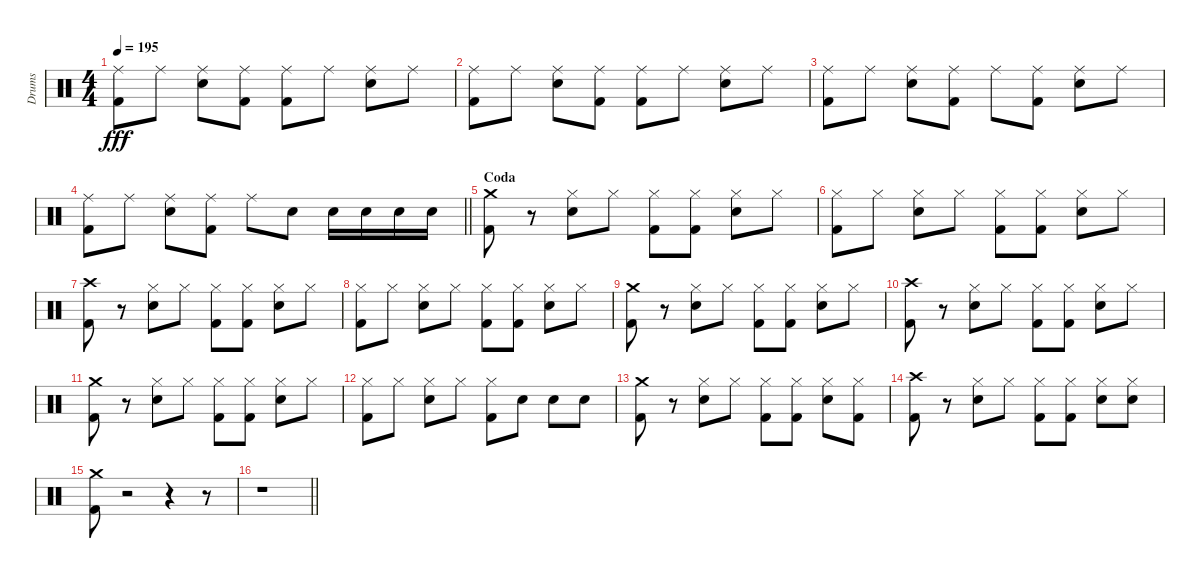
\track ("Drums" "Drums") {instrument percussion}
\staff {score}
\articulation defaults
\ts (4 4)
\tempo 195
\clef neutral
\ks c
("Ride (middle)" "Kick (hit) 2").8{dy fff} "Ride (middle)".8 ("Ride (middle)" "Snare (hit) 2").8 ("Ride (middle)" "Kick (hit) 2").8 ("Ride (middle)" "Kick (hit) 2").8 "Ride (middle)".8 ("Ride (middle)" "Snare (hit) 2").8 "Ride (middle)".8 |
("Ride (middle)" "Kick (hit) 2").8 "Ride (middle)".8 ("Ride (middle)" "Snare (hit) 2").8 ("Ride (middle)" "Kick (hit) 2").8 ("Ride (middle)" "Kick (hit) 2").8 "Ride (middle)".8 ("Ride (middle)" "Snare (hit) 2").8 "Ride (middle)".8 |
("Ride (middle)" "Kick (hit) 2").8 "Ride (middle)".8 ("Ride (middle)" "Snare (hit) 2").8 ("Ride (middle)" "Kick (hit) 2").8 "Ride (middle)".8 ("Ride (middle)" "Kick (hit) 2").8 ("Ride (middle)" "Snare (hit) 2").8 "Ride (middle)".8 |
\barLineRight lightlight
("Ride (middle)" "Kick (hit) 2").8 "Ride (middle)".8 ("Ride (middle)" "Snare (hit) 2").8 ("Ride (middle)" "Kick (hit) 2").8 "Ride (middle)".8 "Snare (hit) 2".8 "Snare (hit) 2".16 "Snare (hit) 2".16 "Snare (hit) 2".16 "Snare (hit) 2".16 |
\section ("" "Coda")
("Crash medium (hit)" "Kick (hit) 2").8 r.8 ("Hi-Hat (closed)" "Snare (hit) 2").8 "Hi-Hat (closed)".8 ("Hi-Hat (closed)" "Kick (hit) 2").8 ("Hi-Hat (closed)" "Kick (hit) 2").8 ("Hi-Hat (closed)" "Snare (hit) 2").8 "Hi-Hat (closed)".8 |
("Hi-Hat (closed)" "Kick (hit) 2").8 "Hi-Hat (closed)".8 ("Hi-Hat (closed)" "Snare (hit) 2").8 "Hi-Hat (closed)".8 ("Hi-Hat (closed)" "Kick (hit) 2").8 ("Hi-Hat (closed)" "Kick (hit) 2").8 ("Hi-Hat (closed)" "Snare (hit) 2").8 "Hi-Hat (closed)".8 |
("Crash high (hit)" "Kick (hit) 2").8 r.8 ("Hi-Hat (closed)" "Snare (hit) 2").8 "Hi-Hat (closed)".8 ("Hi-Hat (closed)" "Kick (hit) 2").8 ("Hi-Hat (closed)" "Kick (hit) 2").8 ("Hi-Hat (closed)" "Snare (hit) 2").8 "Hi-Hat (closed)".8 |
("Hi-Hat (closed)" "Kick (hit) 2").8 "Hi-Hat (closed)".8 ("Hi-Hat (closed)" "Snare (hit) 2").8 "Hi-Hat (closed)".8 ("Hi-Hat (closed)" "Kick (hit) 2").8 ("Hi-Hat (closed)" "Kick (hit) 2").8 ("Hi-Hat (closed)" "Snare (hit) 2").8 "Hi-Hat (closed)".8 |
("Crash medium (hit)" "Kick (hit) 2").8 r.8 ("Hi-Hat (closed)" "Snare (hit) 2").8 "Hi-Hat (closed)".8 ("Hi-Hat (closed)" "Kick (hit) 2").8 ("Hi-Hat (closed)" "Kick (hit) 2").8 ("Hi-Hat (closed)" "Snare (hit) 2").8 "Hi-Hat (closed)".8 |
("Crash high (hit)" "Kick (hit) 2").8 r.8 ("Hi-Hat (closed)" "Snare (hit) 2").8 "Hi-Hat (closed)".8 ("Hi-Hat (closed)" "Kick (hit) 2").8 ("Hi-Hat (closed)" "Kick (hit) 2").8 ("Hi-Hat (closed)" "Snare (hit) 2").8 "Hi-Hat (closed)".8 |
("Crash medium (hit)" "Kick (hit) 2").8 r.8 ("Hi-Hat (closed)" "Snare (hit) 2").8 "Hi-Hat (closed)".8 ("Hi-Hat (closed)" "Kick (hit) 2").8 ("Hi-Hat (closed)" "Kick (hit) 2").8 ("Hi-Hat (closed)" "Snare (hit) 2").8 "Hi-Hat (closed)".8 |
("Hi-Hat (closed)" "Kick (hit) 2").8 "Hi-Hat (closed)".8 ("Hi-Hat (closed)" "Snare (hit) 2").8 "Hi-Hat (closed)".8 ("Hi-Hat (closed)" "Kick (hit) 2").8 "Snare (hit) 2".8 "Snare (hit) 2".8 "Snare (hit) 2".8 |
("Crash medium (hit)" "Kick (hit) 2").8 r.8 ("Hi-Hat (closed)" "Snare (hit) 2").8 "Hi-Hat (closed)".8 ("Hi-Hat (closed)" "Kick (hit) 2").8 ("Hi-Hat (closed)" "Kick (hit) 2").8 ("Hi-Hat (closed)" "Snare (hit) 2").8 ("Hi-Hat (closed)" "Kick (hit) 2").8 |
("Crash high (hit)" "Kick (hit) 2").8 r.8 ("Hi-Hat (closed)" "Snare (hit) 2").8 "Hi-Hat (closed)".8 ("Hi-Hat (closed)" "Kick (hit) 2").8 ("Hi-Hat (closed)" "Kick (hit) 2").8 ("Hi-Hat (closed)" "Snare (hit) 2").8 ("Hi-Hat (closed)" "Snare (hit) 2").8 |
("Crash medium (hit)" "Kick (hit) 2").8 r.2 r.4 r.8 |
\barLineRight lightlight
r.1
